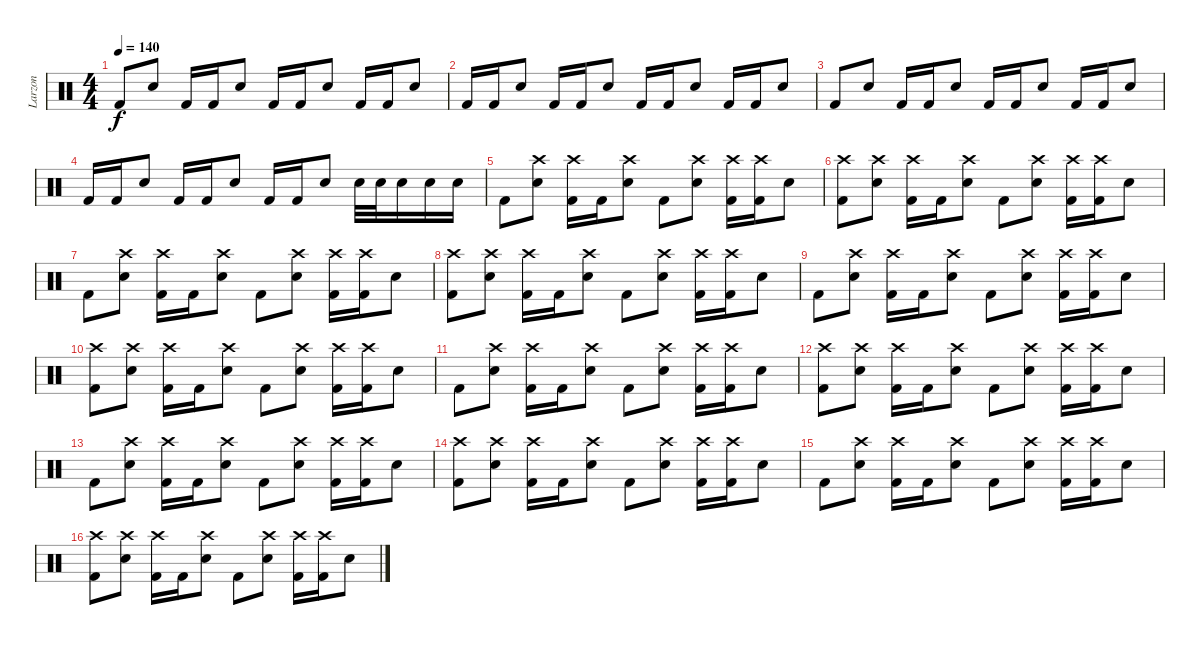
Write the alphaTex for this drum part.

\track ("Larzon" "Larzon") {instrument percussion}
\staff {score}
\articulation defaults
\ts (4 4)
\tempo 140
\clef neutral
\ks c "Kick (hit) 2".8{dy f} "Snare (hit) 2".8 "Kick (hit) 2".16 "Kick (hit) 2".16 "Snare (hit) 2".8 "Kick (hit) 2".16 "Kick (hit) 2".16 "Snare (hit) 2".8 "Kick (hit) 2".16 "Kick (hit) 2".16 "Snare (hit) 2".8
|
"Kick (hit) 2".16 "Kick (hit) 2".16 "Snare (hit) 2".8 "Kick (hit) 2".16 "Kick (hit) 2".16 "Snare (hit) 2".8 "Kick (hit) 2".16 "Kick (hit) 2".16 "Snare (hit) 2".8 "Kick (hit) 2".16 "Kick (hit) 2".16 "Snare (hit) 2".8 |
"Kick (hit) 2".8 "Snare (hit) 2".8 "Kick (hit) 2".16 "Kick (hit) 2".16 "Snare (hit) 2".8 "Kick (hit) 2".16 "Kick (hit) 2".16 "Snare (hit) 2".8 "Kick (hit) 2".16 "Kick (hit) 2".16 "Snare (hit) 2".8 |
"Kick (hit) 2".16 "Kick (hit) 2".16 "Snare (hit) 2".8 "Kick (hit) 2".16 "Kick (hit) 2".16 "Snare (hit) 2".8 "Kick (hit) 2".16 "Kick (hit) 2".16 "Snare (hit) 2".8 "Snare (hit) 2".32 "Snare (hit) 2".32 "Snare (hit) 2".16 "Snare (hit) 2".16 "Snare (hit) 2".16 |
"Kick (hit) 2".8 ("Crash high (hit)" "Snare (hit) 2").8 ("Crash high (hit)" "Kick (hit) 2").16 "Kick (hit) 2".16 ("Crash high (hit)" "Snare (hit) 2").8 "Kick (hit) 2".8 ("Crash high (hit)" "Snare (hit) 2").8 ("Crash high (hit)" "Kick (hit) 2").16 ("Crash high (hit)" "Kick (hit) 2").16 "Snare (hit) 2".8 |
("Crash high (hit)" "Kick (hit) 2").8 ("Crash high (hit)" "Snare (hit) 2").8 ("Crash high (hit)" "Kick (hit) 2").16 "Kick (hit) 2".16 ("Crash high (hit)" "Snare (hit) 2").8 "Kick (hit) 2".8 ("Crash high (hit)" "Snare (hit) 2").8 ("Crash high (hit)" "Kick (hit) 2").16 ("Crash high (hit)" "Kick (hit) 2").16 "Snare (hit) 2".8 |
"Kick (hit) 2".8 ("Crash high (hit)" "Snare (hit) 2").8 ("Crash high (hit)" "Kick (hit) 2").16 "Kick (hit) 2".16 ("Crash high (hit)" "Snare (hit) 2").8 "Kick (hit) 2".8 ("Crash high (hit)" "Snare (hit) 2").8 ("Crash high (hit)" "Kick (hit) 2").16 ("Crash high (hit)" "Kick (hit) 2").16 "Snare (hit) 2".8 |
("Crash high (hit)" "Kick (hit) 2").8 ("Crash high (hit)" "Snare (hit) 2").8 ("Crash high (hit)" "Kick (hit) 2").16 "Kick (hit) 2".16 ("Crash high (hit)" "Snare (hit) 2").8 "Kick (hit) 2".8 ("Crash high (hit)" "Snare (hit) 2").8 ("Crash high (hit)" "Kick (hit) 2").16 ("Crash high (hit)" "Kick (hit) 2").16 "Snare (hit) 2".8 |
"Kick (hit) 2".8 ("Crash high (hit)" "Snare (hit) 2").8 ("Crash high (hit)" "Kick (hit) 2").16 "Kick (hit) 2".16 ("Crash high (hit)" "Snare (hit) 2").8 "Kick (hit) 2".8 ("Crash high (hit)" "Snare (hit) 2").8 ("Crash high (hit)" "Kick (hit) 2").16 ("Crash high (hit)" "Kick (hit) 2").16 "Snare (hit) 2".8 |
("Crash high (hit)" "Kick (hit) 2").8 ("Crash high (hit)" "Snare (hit) 2").8 ("Crash high (hit)" "Kick (hit) 2").16 "Kick (hit) 2".16 ("Crash high (hit)" "Snare (hit) 2").8 "Kick (hit) 2".8 ("Crash high (hit)" "Snare (hit) 2").8 ("Crash high (hit)" "Kick (hit) 2").16 ("Crash high (hit)" "Kick (hit) 2").16 "Snare (hit) 2".8 |
"Kick (hit) 2".8 ("Crash high (hit)" "Snare (hit) 2").8 ("Crash high (hit)" "Kick (hit) 2").16 "Kick (hit) 2".16 ("Crash high (hit)" "Snare (hit) 2").8 "Kick (hit) 2".8 ("Crash high (hit)" "Snare (hit) 2").8 ("Crash high (hit)" "Kick (hit) 2").16 ("Crash high (hit)" "Kick (hit) 2").16 "Snare (hit) 2".8 |
("Crash high (hit)" "Kick (hit) 2").8 ("Crash high (hit)" "Snare (hit) 2").8 ("Crash high (hit)" "Kick (hit) 2").16 "Kick (hit) 2".16 ("Crash high (hit)" "Snare (hit) 2").8 "Kick (hit) 2".8 ("Crash high (hit)" "Snare (hit) 2").8 ("Crash high (hit)" "Kick (hit) 2").16 ("Crash high (hit)" "Kick (hit) 2").16 "Snare (hit) 2".8 |
"Kick (hit) 2".8 ("Crash high (hit)" "Snare (hit) 2").8 ("Crash high (hit)" "Kick (hit) 2").16 "Kick (hit) 2".16 ("Crash high (hit)" "Snare (hit) 2").8 "Kick (hit) 2".8 ("Crash high (hit)" "Snare (hit) 2").8 ("Crash high (hit)" "Kick (hit) 2").16 ("Crash high (hit)" "Kick (hit) 2").16 "Snare (hit) 2".8 |
("Crash high (hit)" "Kick (hit) 2").8 ("Crash high (hit)" "Snare (hit) 2").8 ("Crash high (hit)" "Kick (hit) 2").16 "Kick (hit) 2".16 ("Crash high (hit)" "Snare (hit) 2").8 "Kick (hit) 2".8 ("Crash high (hit)" "Snare (hit) 2").8 ("Crash high (hit)" "Kick (hit) 2").16 ("Crash high (hit)" "Kick (hit) 2").16 "Snare (hit) 2".8 |
"Kick (hit) 2".8 ("Crash high (hit)" "Snare (hit) 2").8 ("Crash high (hit)" "Kick (hit) 2").16 "Kick (hit) 2".16 ("Crash high (hit)" "Snare (hit) 2").8 "Kick (hit) 2".8 ("Crash high (hit)" "Snare (hit) 2").8 ("Crash high (hit)" "Kick (hit) 2").16 ("Crash high (hit)" "Kick (hit) 2").16 "Snare (hit) 2".8 |
("Crash high (hit)" "Kick (hit) 2").8 ("Crash high (hit)" "Snare (hit) 2").8 ("Crash high (hit)" "Kick (hit) 2").16 "Kick (hit) 2".16 ("Crash high (hit)" "Snare (hit) 2").8 "Kick (hit) 2".8 ("Crash high (hit)" "Snare (hit) 2").8 ("Crash high (hit)" "Kick (hit) 2").16 ("Crash high (hit)" "Kick (hit) 2").16 "Snare (hit) 2".8
